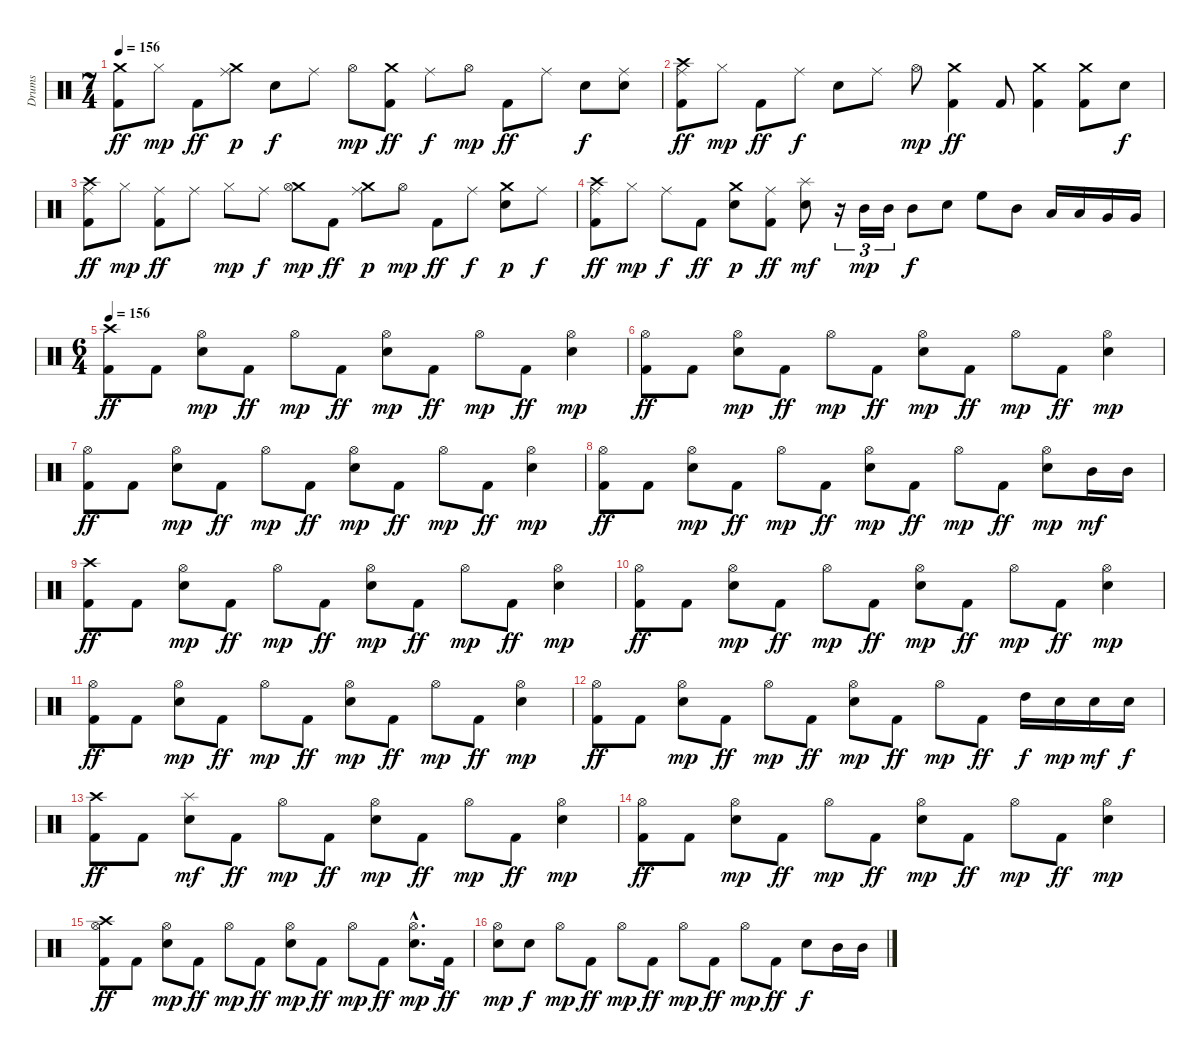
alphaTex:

\track ("Drums" "Drums") {instrument percussion}
\staff {score}
\articulation defaults
\ts (7 4)
\tempo 156
\clef neutral
\ks c
("Crash medium (hit)" "Kick (hit) 2").8{dy ff} "Hi-Hat (closed)".8{dy mp} "Kick (hit) 2".8{dy ff} ("Crash medium (hit)" "Ride (middle)").8{dy p} "Electric Snare (hit)".8{dy f} "Ride (middle)".8 "Hi-Hat (open)".8{dy mp} ("Crash medium (hit)" "Kick (hit) 2").8{dy ff} "Ride (middle)".8{dy f} "Hi-Hat (open)".8{dy mp} "Kick (hit) 2".8{dy ff} "Ride (middle)".8 "Electric Snare (hit)".8{dy f} ("Ride (middle)" "Electric Snare (hit)").8 |
("Crash high (hit)" "Ride (middle)" "Kick (hit) 2").8{dy ff} "Hi-Hat (closed)".8{dy mp} "Kick (hit) 2".8{dy ff} "Ride (middle)".8{dy f} "Electric Snare (hit)".8 "Ride (middle)".8 "Hi-Hat (open)".8{dy mp} ("Crash medium (hit)" "Kick (hit) 2").4{dy ff} "Kick (hit) 2".8 ("Crash medium (hit)" "Kick (hit) 2").4 ("Crash medium (hit)" "Kick (hit) 2").8 "Electric Snare (hit)".8{dy f} |
("Crash high (hit)" "Ride (middle)" "Kick (hit) 2").8{dy ff} "Hi-Hat (closed)".8{dy mp} ("Ride (middle)" "Kick (hit) 2").8{dy ff} "Ride (middle)".8 "Hi-Hat (closed)".8{dy mp} "Ride (middle)".8{dy f} ("Crash medium (hit)" "Hi-Hat (open)").8{dy mp} "Kick (hit) 2".8{dy ff} ("Crash medium (hit)" "Ride (middle)").8{dy p} "Hi-Hat (open)".8{dy mp} "Kick (hit) 2".8{dy ff} "Ride (middle)".8{dy f} ("Crash medium (hit)" "Electric Snare (hit)").8{dy p} "Ride (middle)".8{dy f} |
("Crash high (hit)" "Ride (middle)" "Kick (hit) 2").8{dy ff} "Hi-Hat (closed)".8{dy mp} "Ride (middle)".8{dy f} "Kick (hit) 2".8{dy ff} ("Crash medium (hit)" "Electric Snare (hit)").8{dy p} ("Ride (middle)" "Kick (hit) 2").8{dy ff} ("Splash (hit)" "Electric Snare (hit)").8{dy mf} r.16{tu (3 2)} "Mid Tom (hit)".16{tu (3 2) dy mp} "Mid Tom (hit)".16{tu (3 2)} "Mid Tom (hit)".8{dy f} "Electric Snare (hit)".8 "High Floor Tom (hit)".8 "Mid Tom (hit)".8 "Low Tom (hit)".16 "Low Tom (hit)".16 "Very Low Tom (hit)".16 "Very Low Tom (hit)".16 |
\ts (6 4)
\tempo 156
("Crash high (hit)" "Kick (hit) 2").8{dy ff} "Kick (hit) 2".8 ("Hi-Hat (open)" "Electric Snare (hit)").8{dy mp} "Kick (hit) 2".8{dy ff} "Hi-Hat (open)".8{dy mp} "Kick (hit) 2".8{dy ff} ("Hi-Hat (open)" "Electric Snare (hit)").8{dy mp} "Kick (hit) 2".8{dy ff} "Hi-Hat (open)".8{dy mp} "Kick (hit) 2".8{dy ff} ("Hi-Hat (open)" "Electric Snare (hit)").4{dy mp} |
("Hi-Hat (open)" "Kick (hit) 2").8{dy ff} "Kick (hit) 2".8 ("Hi-Hat (open)" "Electric Snare (hit)").8{dy mp} "Kick (hit) 2".8{dy ff} "Hi-Hat (open)".8{dy mp} "Kick (hit) 2".8{dy ff} ("Hi-Hat (open)" "Electric Snare (hit)").8{dy mp} "Kick (hit) 2".8{dy ff} "Hi-Hat (open)".8{dy mp} "Kick (hit) 2".8{dy ff} ("Hi-Hat (open)" "Electric Snare (hit)").4{dy mp} |
("Hi-Hat (open)" "Kick (hit) 2").8{dy ff} "Kick (hit) 2".8 ("Hi-Hat (open)" "Electric Snare (hit)").8{dy mp} "Kick (hit) 2".8{dy ff} "Hi-Hat (open)".8{dy mp} "Kick (hit) 2".8{dy ff} ("Hi-Hat (open)" "Electric Snare (hit)").8{dy mp} "Kick (hit) 2".8{dy ff} "Hi-Hat (open)".8{dy mp} "Kick (hit) 2".8{dy ff} ("Hi-Hat (open)" "Electric Snare (hit)").4{dy mp} |
("Hi-Hat (open)" "Kick (hit) 2").8{dy ff} "Kick (hit) 2".8 ("Hi-Hat (open)" "Electric Snare (hit)").8{dy mp} "Kick (hit) 2".8{dy ff} "Hi-Hat (open)".8{dy mp} "Kick (hit) 2".8{dy ff} ("Hi-Hat (open)" "Electric Snare (hit)").8{dy mp} "Kick (hit) 2".8{dy ff} "Hi-Hat (open)".8{dy mp} "Kick (hit) 2".8{dy ff} ("Hi-Hat (open)" "Electric Snare (hit)").8{dy mp} "Mid Tom (hit)".16{dy mf} "Mid Tom (hit)".16 |
("Crash high (hit)" "Kick (hit) 2").8{dy ff} "Kick (hit) 2".8 ("Hi-Hat (open)" "Electric Snare (hit)").8{dy mp} "Kick (hit) 2".8{dy ff} "Hi-Hat (open)".8{dy mp} "Kick (hit) 2".8{dy ff} ("Hi-Hat (open)" "Electric Snare (hit)").8{dy mp} "Kick (hit) 2".8{dy ff} "Hi-Hat (open)".8{dy mp} "Kick (hit) 2".8{dy ff} ("Hi-Hat (open)" "Electric Snare (hit)").4{dy mp} |
("Hi-Hat (open)" "Kick (hit) 2").8{dy ff} "Kick (hit) 2".8 ("Hi-Hat (open)" "Electric Snare (hit)").8{dy mp} "Kick (hit) 2".8{dy ff} "Hi-Hat (open)".8{dy mp} "Kick (hit) 2".8{dy ff} ("Hi-Hat (open)" "Electric Snare (hit)").8{dy mp} "Kick (hit) 2".8{dy ff} "Hi-Hat (open)".8{dy mp} "Kick (hit) 2".8{dy ff} ("Hi-Hat (open)" "Electric Snare (hit)").4{dy mp} |
("Hi-Hat (open)" "Kick (hit) 2").8{dy ff} "Kick (hit) 2".8 ("Hi-Hat (open)" "Electric Snare (hit)").8{dy mp} "Kick (hit) 2".8{dy ff} "Hi-Hat (open)".8{dy mp} "Kick (hit) 2".8{dy ff} ("Hi-Hat (open)" "Electric Snare (hit)").8{dy mp} "Kick (hit) 2".8{dy ff} "Hi-Hat (open)".8{dy mp} "Kick (hit) 2".8{dy ff} ("Hi-Hat (open)" "Electric Snare (hit)").4{dy mp} |
("Hi-Hat (open)" "Kick (hit) 2").8{dy ff} "Kick (hit) 2".8 ("Hi-Hat (open)" "Electric Snare (hit)").8{dy mp} "Kick (hit) 2".8{dy ff} "Hi-Hat (open)".8{dy mp} "Kick (hit) 2".8{dy ff} ("Hi-Hat (open)" "Electric Snare (hit)").8{dy mp} "Kick (hit) 2".8{dy ff} "Hi-Hat (open)".8{dy mp} "Kick (hit) 2".8{dy ff} "High Tom (hit)".16{dy f} "Electric Snare (hit)".16{dy mp} "Electric Snare (hit)".16{dy mf} "Electric Snare (hit)".16{dy f} |
("Crash high (hit)" "Kick (hit) 2").8{dy ff} "Kick (hit) 2".8 ("Splash (hit)" "Electric Snare (hit)").8{dy mf} "Kick (hit) 2".8{dy ff} "Hi-Hat (open)".8{dy mp} "Kick (hit) 2".8{dy ff} ("Hi-Hat (open)" "Electric Snare (hit)").8{dy mp} "Kick (hit) 2".8{dy ff} "Hi-Hat (open)".8{dy mp} "Kick (hit) 2".8{dy ff} ("Hi-Hat (open)" "Electric Snare (hit)").4{dy mp} |
("Hi-Hat (open)" "Kick (hit) 2").8{dy ff} "Kick (hit) 2".8 ("Hi-Hat (open)" "Electric Snare (hit)").8{dy mp} "Kick (hit) 2".8{dy ff} "Hi-Hat (open)".8{dy mp} "Kick (hit) 2".8{dy ff} ("Hi-Hat (open)" "Electric Snare (hit)").8{dy mp} "Kick (hit) 2".8{dy ff} "Hi-Hat (open)".8{dy mp} "Kick (hit) 2".8{dy ff} ("Hi-Hat (open)" "Electric Snare (hit)").4{dy mp} |
("Crash high (hit)" "Hi-Hat (open)" "Kick (hit) 2").8{dy ff} "Kick (hit) 2".8 ("Hi-Hat (open)" "Electric Snare (hit)").8{dy mp} "Kick (hit) 2".8{dy ff} "Hi-Hat (open)".8{dy mp} "Kick (hit) 2".8{dy ff} ("Hi-Hat (open)" "Electric Snare (hit)").8{dy mp} "Kick (hit) 2".8{dy ff} "Hi-Hat (open)".8{dy mp} "Kick (hit) 2".8{dy ff} ("Hi-Hat (open)"{hac} "Electric Snare (hit)"{hac}).8{d dy mp} "Kick (hit) 2".16{dy ff} |
("Hi-Hat (open)" "Electric Snare (hit)").8{dy mp} "Electric Snare (hit)".8{dy f} "Hi-Hat (open)".8{dy mp} "Kick (hit) 2".8{dy ff} "Hi-Hat (open)".8{dy mp} "Kick (hit) 2".8{dy ff} "Hi-Hat (open)".8{dy mp} "Kick (hit) 2".8{dy ff} "Hi-Hat (open)".8{dy mp} "Kick (hit) 2".8{dy ff} "Electric Snare (hit)".8{dy f} "Mid Tom (hit)".16 "Mid Tom (hit)".16
